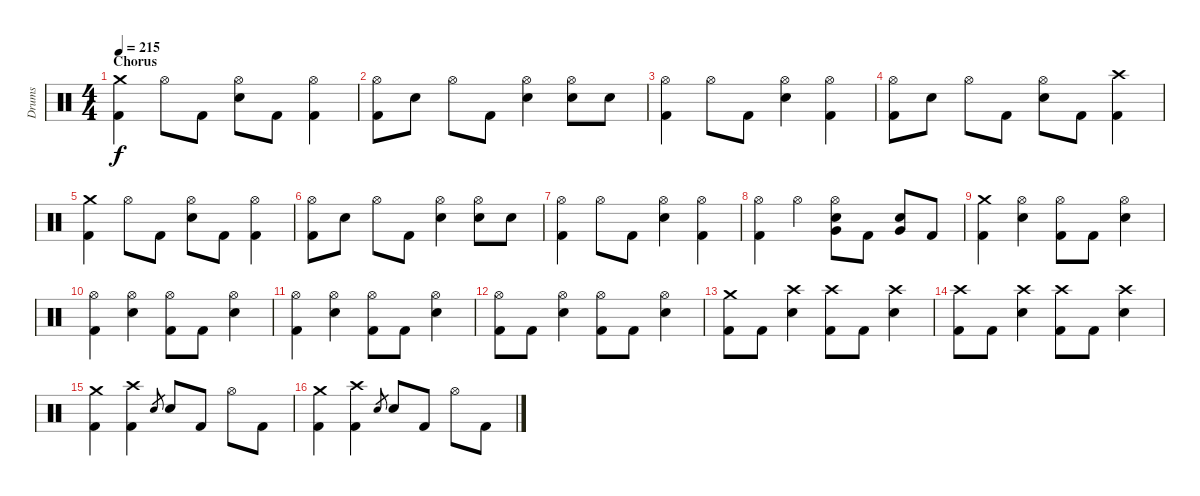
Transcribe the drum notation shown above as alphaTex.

\track ("Drums" "Drums") {instrument percussion}
\staff {score}
\articulation defaults
\ts (4 4)
\section ("" "Chorus")
\tempo 215
\clef neutral
\ks c
("Crash medium (hit)" "Kick (hit) 2").4{dy f} "Hi-Hat (open)".8 "Kick (hit) 2".8 ("Hi-Hat (open)" "Electric Snare (hit)").8 "Kick (hit) 2".8 ("Hi-Hat (open)" "Kick (hit) 2").4 |
("Hi-Hat (open)" "Kick (hit) 2").8 "Electric Snare (hit)".8 "Hi-Hat (open)".8 "Kick (hit) 2".8 ("Hi-Hat (open)" "Electric Snare (hit)").4 ("Hi-Hat (open)" "Electric Snare (hit)").8 "Electric Snare (hit)".8 |
("Hi-Hat (open)" "Kick (hit) 2").4 "Hi-Hat (open)".8 "Kick (hit) 2".8 ("Hi-Hat (open)" "Electric Snare (hit)").4 ("Hi-Hat (open)" "Kick (hit) 2").4 |
("Hi-Hat (open)" "Kick (hit) 2").8 "Electric Snare (hit)".8 "Hi-Hat (open)".8 "Kick (hit) 2".8 ("Hi-Hat (open)" "Electric Snare (hit)").8 "Kick (hit) 2".8 ("Crash high (hit)" "Kick (hit) 2").4 |
("Crash medium (hit)" "Kick (hit) 2").4 "Hi-Hat (open)".8 "Kick (hit) 2".8 ("Hi-Hat (open)" "Electric Snare (hit)").8 "Kick (hit) 2".8 ("Hi-Hat (open)" "Kick (hit) 2").4 |
("Hi-Hat (open)" "Kick (hit) 2").8 "Electric Snare (hit)".8 "Hi-Hat (open)".8 "Kick (hit) 2".8 ("Hi-Hat (open)" "Electric Snare (hit)").4 ("Hi-Hat (open)" "Electric Snare (hit)").8 "Electric Snare (hit)".8 |
("Hi-Hat (open)" "Kick (hit) 2").4 "Hi-Hat (open)".8 "Kick (hit) 2".8 ("Hi-Hat (open)" "Electric Snare (hit)").4 ("Hi-Hat (open)" "Kick (hit) 2").4 |
("Hi-Hat (open)" "Kick (hit) 2").4 "Hi-Hat (open)".4 ("Hi-Hat (open)" "Very Low Tom (hit)" "Electric Snare (hit)").8 "Kick (hit) 2".8 ("Very Low Tom (hit)" "Electric Snare (hit)").8 "Kick (hit) 2".8 |
("Crash medium (hit)" "Kick (hit) 2").4 ("Hi-Hat (open)" "Electric Snare (hit)").4 ("Hi-Hat (open)" "Kick (hit) 2").8 "Kick (hit) 2".8 ("Hi-Hat (open)" "Electric Snare (hit)").4 |
("Hi-Hat (open)" "Kick (hit) 2").4 ("Hi-Hat (open)" "Electric Snare (hit)").4 ("Hi-Hat (open)" "Kick (hit) 2").8 "Kick (hit) 2".8 ("Hi-Hat (open)" "Electric Snare (hit)").4 |
("Hi-Hat (open)" "Kick (hit) 2").4 ("Hi-Hat (open)" "Electric Snare (hit)").4 ("Hi-Hat (open)" "Kick (hit) 2").8 "Kick (hit) 2".8 ("Hi-Hat (open)" "Electric Snare (hit)").4 |
("Hi-Hat (open)" "Kick (hit) 2").8 "Kick (hit) 2".8 ("Hi-Hat (open)" "Electric Snare (hit)").4 ("Hi-Hat (open)" "Kick (hit) 2").8 "Kick (hit) 2".8 ("Hi-Hat (open)" "Electric Snare (hit)").4 |
("Crash medium (hit)" "Kick (hit) 2").8 "Kick (hit) 2".8 ("Crash high (hit)" "Electric Snare (hit)").4 ("Crash high (hit)" "Kick (hit) 2").8 "Kick (hit) 2".8 ("Crash high (hit)" "Electric Snare (hit)").4 |
("Crash high (hit)" "Kick (hit) 2").8 "Kick (hit) 2".8 ("Crash high (hit)" "Electric Snare (hit)").4 ("Crash high (hit)" "Kick (hit) 2").8 "Kick (hit) 2".8 ("Crash high (hit)" "Electric Snare (hit)").4 |
("Crash medium (hit)" "Kick (hit) 2").4 ("Crash high (hit)" "Kick (hit) 2").4 "Electric Snare (hit)".8{gr} "Electric Snare (hit)".8 "Kick (hit) 2".8 "Hi-Hat (open)".8 "Kick (hit) 2".8 |
("Crash medium (hit)" "Kick (hit) 2").4 ("Crash high (hit)" "Kick (hit) 2").4 "Electric Snare (hit)".8{gr} "Electric Snare (hit)".8 "Kick (hit) 2".8 "Hi-Hat (open)".8 "Kick (hit) 2".8
